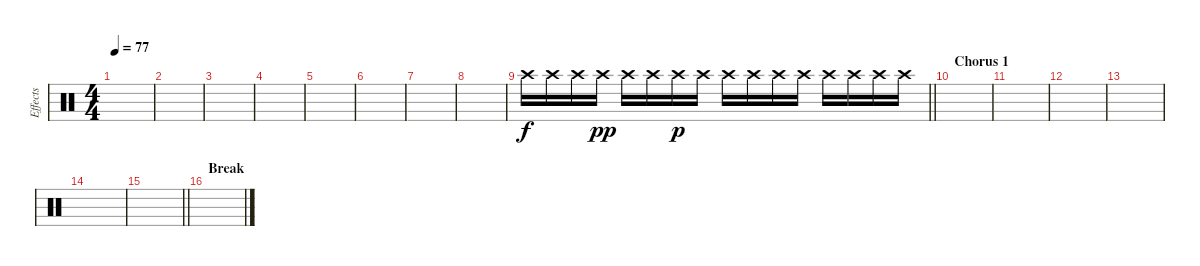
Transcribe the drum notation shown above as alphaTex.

\track ("Effects" "Effects") {instrument percussion}
\staff {score}
\articulation defaults
\ts (4 4)
\tempo 77
\clef neutral
\ks c
|
|
|
|
|
|
|
|
\barLineRight lightlight "Crash high (hit)".16 "Crash high (hit)".16 "Crash high (hit)".16 "Crash high (hit)".16{dy pp} "Crash high (hit)".16 "Crash high (hit)".16 "Crash high (hit)".16{dy p} "Crash high (hit)".16 "Crash high (hit)".16 "Crash high (hit)".16 "Crash high (hit)".16 "Crash high (hit)".16 "Crash high (hit)".16 "Crash high (hit)".16 "Crash high (hit)".16 "Crash high (hit)".16
|
\section ("" "Chorus 1")
|
|
|
|
|
\barLineRight lightlight
|
\section ("" "Break")
